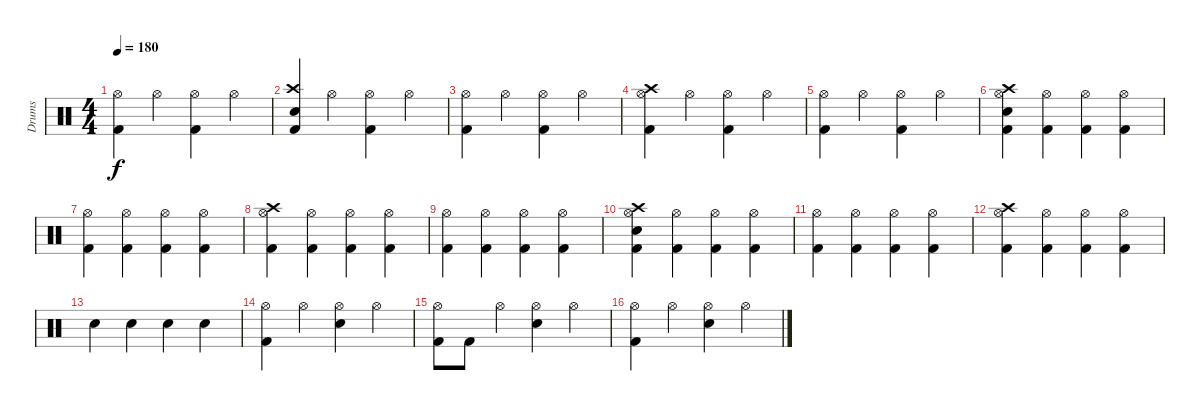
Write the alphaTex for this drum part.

\track ("Drums" "Drums") {instrument percussion}
\staff {score}
\articulation defaults
\ts (4 4)
\tempo 180
\clef neutral
\ks c
("Hi-Hat (open)" "Kick (hit) 2").4{dy f} "Hi-Hat (open)".4 ("Hi-Hat (open)" "Kick (hit) 2").4 "Hi-Hat (open)".4 |
("Crash high (hit)" "Electric Snare (hit)" "Kick (hit) 2").4 "Hi-Hat (open)".4 ("Hi-Hat (open)" "Kick (hit) 2").4 "Hi-Hat (open)".4 |
("Hi-Hat (open)" "Kick (hit) 2").4 "Hi-Hat (open)".4 ("Hi-Hat (open)" "Kick (hit) 2").4 "Hi-Hat (open)".4 |
("Crash high (hit)" "Hi-Hat (open)" "Kick (hit) 2").4 "Hi-Hat (open)".4 ("Hi-Hat (open)" "Kick (hit) 2").4 "Hi-Hat (open)".4 |
("Hi-Hat (open)" "Kick (hit) 2").4 "Hi-Hat (open)".4 ("Hi-Hat (open)" "Kick (hit) 2").4 "Hi-Hat (open)".4 |
("Crash high (hit)" "Hi-Hat (open)" "Electric Snare (hit)" "Kick (hit) 2").4 ("Hi-Hat (open)" "Kick (hit) 2").4 ("Hi-Hat (open)" "Kick (hit) 2").4 ("Hi-Hat (open)" "Kick (hit) 2").4 |
("Hi-Hat (open)" "Kick (hit) 2").4 ("Hi-Hat (open)" "Kick (hit) 2").4 ("Hi-Hat (open)" "Kick (hit) 2").4 ("Hi-Hat (open)" "Kick (hit) 2").4 |
("Crash high (hit)" "Hi-Hat (open)" "Kick (hit) 2").4 ("Hi-Hat (open)" "Kick (hit) 2").4 ("Hi-Hat (open)" "Kick (hit) 2").4 ("Hi-Hat (open)" "Kick (hit) 2").4 |
("Hi-Hat (open)" "Kick (hit) 2").4 ("Hi-Hat (open)" "Kick (hit) 2").4 ("Hi-Hat (open)" "Kick (hit) 2").4 ("Hi-Hat (open)" "Kick (hit) 2").4 |
("Crash high (hit)" "Electric Snare (hit)" "Hi-Hat (open)" "Kick (hit) 2").4 ("Hi-Hat (open)" "Kick (hit) 2").4 ("Hi-Hat (open)" "Kick (hit) 2").4 ("Hi-Hat (open)" "Kick (hit) 2").4 |
("Hi-Hat (open)" "Kick (hit) 2").4 ("Hi-Hat (open)" "Kick (hit) 2").4 ("Hi-Hat (open)" "Kick (hit) 2").4 ("Hi-Hat (open)" "Kick (hit) 2").4 |
("Crash high (hit)" "Hi-Hat (open)" "Kick (hit) 2").4 ("Hi-Hat (open)" "Kick (hit) 2").4 ("Hi-Hat (open)" "Kick (hit) 2").4 ("Hi-Hat (open)" "Kick (hit) 2").4 |
"Electric Snare (hit)".4 "Electric Snare (hit)".4 "Electric Snare (hit)".4 "Electric Snare (hit)".4 |
("Hi-Hat (open)" "Kick (hit) 2").4 "Hi-Hat (open)".4 ("Hi-Hat (open)" "Electric Snare (hit)").4 "Hi-Hat (open)".4 |
("Hi-Hat (open)" "Kick (hit) 2").8 "Kick (hit) 2".8 "Hi-Hat (open)".4 ("Hi-Hat (open)" "Electric Snare (hit)").4 "Hi-Hat (open)".4 |
("Hi-Hat (open)" "Kick (hit) 2").4 "Hi-Hat (open)".4 ("Hi-Hat (open)" "Electric Snare (hit)").4 "Hi-Hat (open)".4
